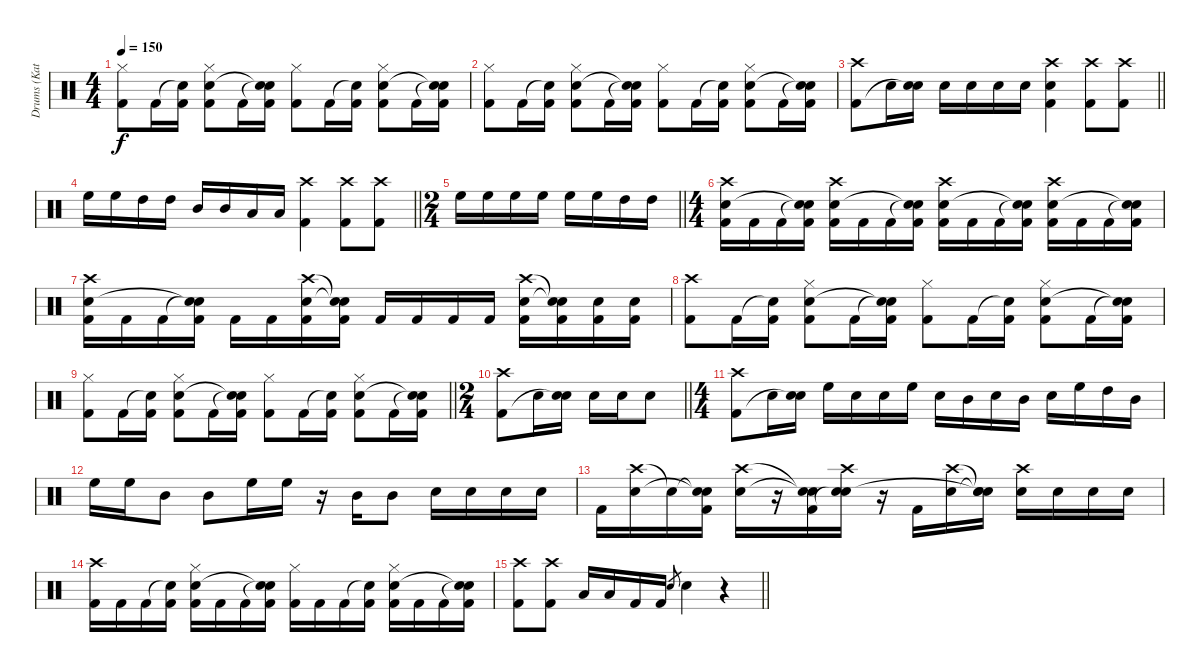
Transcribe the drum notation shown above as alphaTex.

\track ("Drums (Katsuji)" "Drums (Kat") {instrument percussion}
\staff {score}
\articulation defaults
\ts (4 4)
\tempo 150
\clef neutral
\ks c
("Hi-Hat (closed)" "Kick (hit) 2").8{dy f} "Kick (hit) 2".16 ("Snare (hit)"{t} "Kick (hit) 2").16 ("Hi-Hat (closed)" "Snare (hit) 2" "Kick (hit) 2").8 "Kick (hit) 2".16 ("Snare (hit)"{t} "Snare (hit)"{t} "Kick (hit) 2").16 ("Hi-Hat (closed)" "Kick (hit) 2").8 "Kick (hit) 2".16 ("Snare (hit)"{t} "Kick (hit) 2").16 ("Hi-Hat (closed)" "Snare (hit) 2" "Kick (hit) 2").8 "Kick (hit) 2".16 ("Snare (hit)"{t} "Snare (hit)"{t} "Kick (hit) 2").16 |
("Hi-Hat (closed)" "Kick (hit) 2").8 "Kick (hit) 2".16 ("Snare (hit)"{t} "Kick (hit) 2").16 ("Hi-Hat (closed)" "Snare (hit) 2" "Kick (hit) 2").8 "Kick (hit) 2".16 ("Snare (hit)"{t} "Snare (hit)"{t} "Kick (hit) 2").16 ("Hi-Hat (closed)" "Kick (hit) 2").8 "Kick (hit) 2".16 ("Snare (hit)"{t} "Kick (hit) 2").16 ("Hi-Hat (closed)" "Snare (hit) 2" "Kick (hit) 2").8 "Kick (hit) 2".16 ("Snare (hit)"{t} "Snare (hit)"{t} "Kick (hit) 2").16 |
\barLineRight lightlight
("Crash high (hit)" "Kick (hit) 2").8 "Snare (hit) 2".16 ("Snare (hit) 2" "Snare (hit)"{t}).16 "Snare (hit) 2".16 "Snare (hit) 2".16 "Snare (hit) 2".16 "Snare (hit) 2".16 ("Crash high (hit)" "Snare (hit) 2" "Kick (hit) 2").4 ("Crash high (hit)" "Kick (hit) 2").8 ("Crash high (hit)" "Kick (hit) 2").8 |
\barLineRight lightlight "High Floor Tom (hit)".16 "High Floor Tom (hit)".16 "High Tom (hit)".16 "High Tom (hit)".16 "Mid Tom (hit)".16 "Mid Tom (hit)".16 "Low Tom (hit)".16 "Low Tom (hit)".16
("Crash high (hit)" "Kick (hit) 2").4 ("Crash high (hit)" "Kick (hit) 2").8 ("Crash high (hit)" "Kick (hit) 2").8 |
\ts (2 4)
\barLineRight lightlight "High Floor Tom (hit)".16 "High Floor Tom (hit)".16 "High Floor Tom (hit)".16 "High Floor Tom (hit)".16 "High Floor Tom (hit)".16 "High Floor Tom (hit)".16 "High Tom (hit)".16 "High Tom (hit)".16
|
\ts (4 4)
("Crash high (hit)" "Snare (hit) 2" "Kick (hit) 2").16 "Kick (hit) 2".16 "Kick (hit) 2".16 ("Snare (hit)"{t} "Snare (hit)"{t} "Kick (hit) 2").16 ("Crash high (hit)" "Snare (hit) 2" "Kick (hit) 2").16 "Kick (hit) 2".16 "Kick (hit) 2".16 ("Snare (hit)"{t} "Snare (hit)"{t} "Kick (hit) 2").16 ("Crash high (hit)" "Snare (hit) 2" "Kick (hit) 2").16 "Kick (hit) 2".16 "Kick (hit) 2".16 ("Snare (hit)"{t} "Snare (hit)"{t} "Kick (hit) 2").16 ("Crash high (hit)" "Snare (hit) 2" "Kick (hit) 2").16 "Kick (hit) 2".16 "Kick (hit) 2".16 ("Snare (hit)"{t} "Snare (hit)"{t} "Kick (hit) 2").16 |
("Crash high (hit)" "Snare (hit) 2" "Kick (hit) 2").16 "Kick (hit) 2".16 "Kick (hit) 2".16 ("Snare (hit)"{t} "Snare (hit)"{t} "Kick (hit) 2").16 "Kick (hit) 2".16 "Kick (hit) 2".16 ("Crash high (hit)" "Snare (hit) 2" "Kick (hit) 2").16 ("Snare (hit)"{t} "Snare (hit)"{t} "Kick (hit) 2").16 "Kick (hit) 2".16 "Kick (hit) 2".16 "Kick (hit) 2".16 "Kick (hit) 2".16 ("Crash high (hit)" "Snare (hit) 2" "Kick (hit) 2").16 ("Snare (hit)"{t} "Snare (hit)"{t} "Kick (hit) 2").16 ("Snare (hit) 2" "Kick (hit) 2").16 ("Snare (hit) 2" "Kick (hit) 2").16 |
("Crash high (hit)" "Kick (hit) 2").8 "Kick (hit) 2".16 ("Snare (hit)"{t} "Kick (hit) 2").16 ("Hi-Hat (closed)" "Snare (hit) 2" "Kick (hit) 2").8 "Kick (hit) 2".16 ("Snare (hit)"{t} "Snare (hit)"{t} "Kick (hit) 2").16 ("Hi-Hat (closed)" "Kick (hit) 2").8 "Kick (hit) 2".16 ("Snare (hit)"{t} "Kick (hit) 2").16 ("Hi-Hat (closed)" "Snare (hit) 2" "Kick (hit) 2").8 "Kick (hit) 2".16 ("Snare (hit)"{t} "Snare (hit)"{t} "Kick (hit) 2").16 |
\barLineRight lightlight
("Hi-Hat (closed)" "Kick (hit) 2").8 "Kick (hit) 2".16 ("Snare (hit)"{t} "Kick (hit) 2").16 ("Hi-Hat (closed)" "Snare (hit) 2" "Kick (hit) 2").8 "Kick (hit) 2".16 ("Snare (hit)"{t} "Snare (hit)"{t} "Kick (hit) 2").16 ("Hi-Hat (closed)" "Kick (hit) 2").8 "Kick (hit) 2".16 ("Snare (hit)"{t} "Kick (hit) 2").16 ("Hi-Hat (closed)" "Snare (hit) 2" "Kick (hit) 2").8 "Kick (hit) 2".16 ("Snare (hit)"{t} "Snare (hit)"{t} "Kick (hit) 2").16 |
\ts (2 4)
\barLineRight lightlight
("Crash high (hit)" "Kick (hit) 2").8 "Snare (hit) 2".16 ("Snare (hit) 2" "Snare (hit)"{t}).16 "Snare (hit) 2".16 "Snare (hit) 2".16 "Snare (hit) 2".8 |
\ts (4 4)
("Crash high (hit)" "Kick (hit) 2").8 "Snare (hit) 2".16 ("Snare (hit) 2" "Snare (hit)"{t}).16 "High Floor Tom (hit)".16 "Snare (hit) 2".16 "Snare (hit) 2".16 "High Floor Tom (hit)".16 "Snare (hit) 2".16 "Mid Tom (hit)".16 "Snare (hit) 2".16 "Mid Tom (hit)".16 "Snare (hit) 2".16 "High Floor Tom (hit)".16 "High Tom (hit)".16 "Mid Tom (hit)".16 |
"High Floor Tom (hit)".16 "High Floor Tom (hit)".16 "Mid Tom (hit)".8 "Mid Tom (hit)".8 "High Floor Tom (hit)".16 "High Floor Tom (hit)".16 r.16 "Mid Tom (hit)".16 "Mid Tom (hit)".8 "Snare (hit) 2".16 "Snare (hit) 2".16 "Snare (hit) 2".16 "Snare (hit) 2".16 |
"Kick (hit) 2".16 ("Crash high (hit)" "Snare (hit) 2").16 "Snare (hit)"{t}.16 ("Snare (hit)"{t} "Snare (hit)"{t} "Kick (hit) 2").16 ("Crash high (hit)" "Snare (hit) 2").16 r.16 ("Snare (hit)"{t} "Snare (hit)"{t} "Kick (hit) 2").16 ("Crash high (hit)" "Snare (hit) 2" "Snare (hit)"{t}).16 r.16 "Kick (hit) 2".16 ("Crash high (hit)" "Snare (hit) 2").16 ("Snare (hit)"{t} "Snare (hit)"{t} "Snare (hit)"{t}).16 ("Crash high (hit)" "Snare (hit) 2").16 "Snare (hit) 2".16 "Snare (hit) 2".16 "Snare (hit) 2".16 |
("Crash high (hit)" "Kick (hit) 2").16 "Kick (hit) 2".16 "Kick (hit) 2".16 ("Snare (hit)"{t} "Kick (hit) 2").16 ("Hi-Hat (closed)" "Snare (hit) 2" "Kick (hit) 2").16 "Kick (hit) 2".16 "Kick (hit) 2".16 ("Snare (hit)"{t} "Snare (hit)"{t} "Kick (hit) 2").16 ("Hi-Hat (closed)" "Kick (hit) 2").16 "Kick (hit) 2".16 "Kick (hit) 2".16 ("Snare (hit)"{t} "Kick (hit) 2").16 ("Hi-Hat (closed)" "Snare (hit) 2" "Kick (hit) 2").16 "Kick (hit) 2".16 "Kick (hit) 2".16 ("Snare (hit)"{t} "Snare (hit)"{t} "Kick (hit) 2").16 |
\barLineRight lightlight
("Crash high (hit)" "Kick (hit) 2").8 ("Crash high (hit)" "Kick (hit) 2").8 "Low Tom (hit)".16 "Low Tom (hit)".16 "Kick (hit) 2".16 "Kick (hit) 2".16 "Snare (hit) 2".8{gr} "Snare (hit) 2".4 r.4
